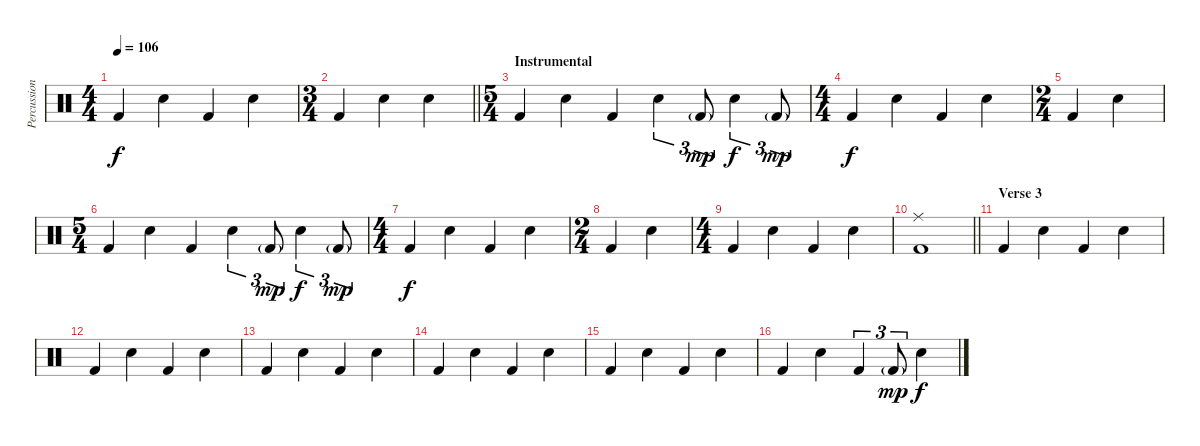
\track ("Percussion" "Percussion") {instrument percussion}
\staff {score}
\articulation defaults
\ts (4 4)
\tempo 106
\clef neutral
\ks c "Kick (hit) 2".4{dy f} "Snare (hit) 2".4 "Kick (hit) 2".4 "Snare (hit) 2".4
|
\ts (3 4)
\barLineRight lightlight "Kick (hit) 2".4 "Snare (hit) 2".4 "Snare (hit) 2".4
|
\ts (5 4)
\section ("" "Instrumental")
"Kick (hit) 2".4 "Snare (hit) 2".4 "Kick (hit) 2".4 "Snare (hit) 2".4{tu (3 2)} "Kick (hit) 2"{g}.8{tu (3 2) dy mp} "Snare (hit) 2".4{tu (3 2) dy f} "Kick (hit) 2"{g}.8{tu (3 2) dy mp} |
\ts (4 4)
"Kick (hit) 2".4{dy f} "Snare (hit) 2".4 "Kick (hit) 2".4 "Snare (hit) 2".4 |
\ts (2 4)
"Kick (hit) 2".4 "Snare (hit) 2".4 |
\ts (5 4)
"Kick (hit) 2".4 "Snare (hit) 2".4 "Kick (hit) 2".4 "Snare (hit) 2".4{tu (3 2)} "Kick (hit) 2"{g}.8{tu (3 2) dy mp} "Snare (hit) 2".4{tu (3 2) dy f} "Kick (hit) 2"{g}.8{tu (3 2) dy mp} |
\ts (4 4)
"Kick (hit) 2".4{dy f} "Snare (hit) 2".4 "Kick (hit) 2".4 "Snare (hit) 2".4 |
\ts (2 4)
"Kick (hit) 2".4 "Snare (hit) 2".4 |
\ts (4 4)
"Kick (hit) 2".4 "Snare (hit) 2".4 "Kick (hit) 2".4 "Snare (hit) 2".4 |
\barLineRight lightlight
("Ride (middle)" "Kick (hit) 2").1 |
\section ("" "Verse 3")
"Kick (hit) 2".4 "Snare (hit) 2".4 "Kick (hit) 2".4 "Snare (hit) 2".4 |
"Kick (hit) 2".4 "Snare (hit) 2".4 "Kick (hit) 2".4 "Snare (hit) 2".4 |
"Kick (hit) 2".4 "Snare (hit) 2".4 "Kick (hit) 2".4 "Snare (hit) 2".4 |
"Kick (hit) 2".4 "Snare (hit) 2".4 "Kick (hit) 2".4 "Snare (hit) 2".4 |
"Kick (hit) 2".4 "Snare (hit) 2".4 "Kick (hit) 2".4 "Snare (hit) 2".4 |
"Kick (hit) 2".4 "Snare (hit) 2".4 "Kick (hit) 2".4{tu (3 2)} "Kick (hit) 2"{g}.8{tu (3 2) dy mp} "Snare (hit) 2".4{dy f}
